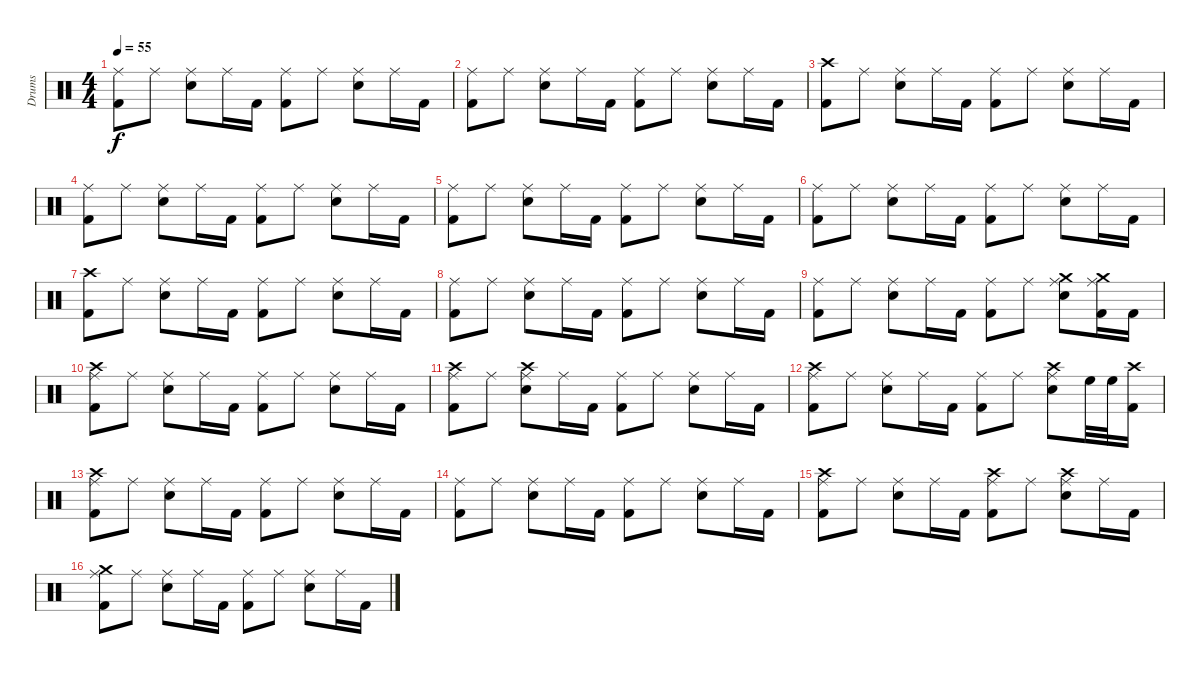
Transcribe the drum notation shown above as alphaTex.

\track ("Drums" "Drums") {instrument percussion}
\staff {score}
\articulation defaults
\ts (4 4)
\tempo 55
\clef neutral
\ks c
("Ride (middle)" "Kick (hit) 2").8{dy f} "Ride (middle)".8 ("Ride (middle)" "Electric Snare (hit)").8 "Ride (middle)".16 "Kick (hit) 2".16 ("Ride (middle)" "Kick (hit) 2").8 "Ride (middle)".8 ("Ride (middle)" "Electric Snare (hit)").8 "Ride (middle)".16 "Kick (hit) 2".16 |
("Ride (middle)" "Kick (hit) 2").8 "Ride (middle)".8 ("Ride (middle)" "Electric Snare (hit)").8 "Ride (middle)".16 "Kick (hit) 2".16 ("Ride (middle)" "Kick (hit) 2").8 "Ride (middle)".8 ("Ride (middle)" "Electric Snare (hit)").8 "Ride (middle)".16 "Kick (hit) 2".16 |
("Crash high (hit)" "Kick (hit) 2").8 "Ride (middle)".8 ("Ride (middle)" "Electric Snare (hit)").8 "Ride (middle)".16 "Kick (hit) 2".16 ("Ride (middle)" "Kick (hit) 2").8 "Ride (middle)".8 ("Ride (middle)" "Electric Snare (hit)").8 "Ride (middle)".16 "Kick (hit) 2".16 |
("Ride (middle)" "Kick (hit) 2").8 "Ride (middle)".8 ("Ride (middle)" "Electric Snare (hit)").8 "Ride (middle)".16 "Kick (hit) 2".16 ("Ride (middle)" "Kick (hit) 2").8 "Ride (middle)".8 ("Ride (middle)" "Electric Snare (hit)").8 "Ride (middle)".16 "Kick (hit) 2".16 |
("Ride (middle)" "Kick (hit) 2").8 "Ride (middle)".8 ("Ride (middle)" "Electric Snare (hit)").8 "Ride (middle)".16 "Kick (hit) 2".16 ("Ride (middle)" "Kick (hit) 2").8 "Ride (middle)".8 ("Ride (middle)" "Electric Snare (hit)").8 "Ride (middle)".16 "Kick (hit) 2".16 |
("Ride (middle)" "Kick (hit) 2").8 "Ride (middle)".8 ("Ride (middle)" "Electric Snare (hit)").8 "Ride (middle)".16 "Kick (hit) 2".16 ("Ride (middle)" "Kick (hit) 2").8 "Ride (middle)".8 ("Ride (middle)" "Electric Snare (hit)").8 "Ride (middle)".16 "Kick (hit) 2".16 |
("Crash high (hit)" "Kick (hit) 2").8 "Ride (middle)".8 ("Ride (middle)" "Electric Snare (hit)").8 "Ride (middle)".16 "Kick (hit) 2".16 ("Ride (middle)" "Kick (hit) 2").8 "Ride (middle)".8 ("Ride (middle)" "Electric Snare (hit)").8 "Ride (middle)".16 "Kick (hit) 2".16 |
("Ride (middle)" "Kick (hit) 2").8 "Ride (middle)".8 ("Ride (middle)" "Electric Snare (hit)").8 "Ride (middle)".16 "Kick (hit) 2".16 ("Ride (middle)" "Kick (hit) 2").8 "Ride (middle)".8 ("Ride (middle)" "Electric Snare (hit)").8 "Ride (middle)".16 "Kick (hit) 2".16 |
("Ride (middle)" "Kick (hit) 2").8 "Ride (middle)".8 ("Ride (middle)" "Electric Snare (hit)").8 "Ride (middle)".16 "Kick (hit) 2".16 ("Ride (middle)" "Kick (hit) 2").8 "Ride (middle)".8 ("Crash medium (hit)" "Ride (middle)" "Electric Snare (hit)").8 ("Crash medium (hit)" "Ride (middle)" "Kick (hit) 2").16 "Kick (hit) 2".16 |
("Crash high (hit)" "Ride (middle)" "Kick (hit) 2").8 "Ride (middle)".8 ("Ride (middle)" "Electric Snare (hit)").8 "Ride (middle)".16 "Kick (hit) 2".16 ("Ride (middle)" "Kick (hit) 2").8 "Ride (middle)".8 ("Ride (middle)" "Electric Snare (hit)").8 "Ride (middle)".16 "Kick (hit) 2".16 |
("Crash high (hit)" "Ride (middle)" "Kick (hit) 2").8 "Ride (middle)".8 ("Crash high (hit)" "Ride (middle)" "Electric Snare (hit)").8 "Ride (middle)".16 "Kick (hit) 2".16 ("Ride (middle)" "Kick (hit) 2").8 "Ride (middle)".8 ("Ride (middle)" "Electric Snare (hit)").8 "Ride (middle)".16 "Kick (hit) 2".16 |
("Crash high (hit)" "Ride (middle)" "Kick (hit) 2").8 "Ride (middle)".8 ("Ride (middle)" "Electric Snare (hit)").8 "Ride (middle)".16 "Kick (hit) 2".16 ("Ride (middle)" "Kick (hit) 2").8 "Ride (middle)".8 ("Crash high (hit)" "Ride (middle)" "Electric Snare (hit)").8 "High Floor Tom (hit)".32 "High Floor Tom (hit)".32 ("Crash high (hit)" "Kick (hit) 2").16 |
("Crash high (hit)" "Ride (middle)" "Kick (hit) 2").8 "Ride (middle)".8 ("Ride (middle)" "Electric Snare (hit)").8 "Ride (middle)".16 "Kick (hit) 2".16 ("Ride (middle)" "Kick (hit) 2").8 "Ride (middle)".8 ("Ride (middle)" "Electric Snare (hit)").8 "Ride (middle)".16 "Kick (hit) 2".16 |
("Ride (middle)" "Kick (hit) 2").8 "Ride (middle)".8 ("Ride (middle)" "Electric Snare (hit)").8 "Ride (middle)".16 "Kick (hit) 2".16 ("Ride (middle)" "Kick (hit) 2").8 "Ride (middle)".8 ("Ride (middle)" "Electric Snare (hit)").8 "Ride (middle)".16 "Kick (hit) 2".16 |
("Crash high (hit)" "Ride (middle)" "Kick (hit) 2").8 "Ride (middle)".8 ("Ride (middle)" "Electric Snare (hit)").8 "Ride (middle)".16 "Kick (hit) 2".16 ("Crash high (hit)" "Ride (middle)" "Kick (hit) 2").8 "Ride (middle)".8 ("Crash high (hit)" "Ride (middle)" "Electric Snare (hit)").8 "Ride (middle)".16 "Kick (hit) 2".16 |
("Crash medium (hit)" "Ride (middle)" "Kick (hit) 2").8 "Ride (middle)".8 ("Ride (middle)" "Electric Snare (hit)").8 "Ride (middle)".16 "Kick (hit) 2".16 ("Ride (middle)" "Kick (hit) 2").8 "Ride (middle)".8 ("Ride (middle)" "Electric Snare (hit)").8 "Ride (middle)".16 "Kick (hit) 2".16
